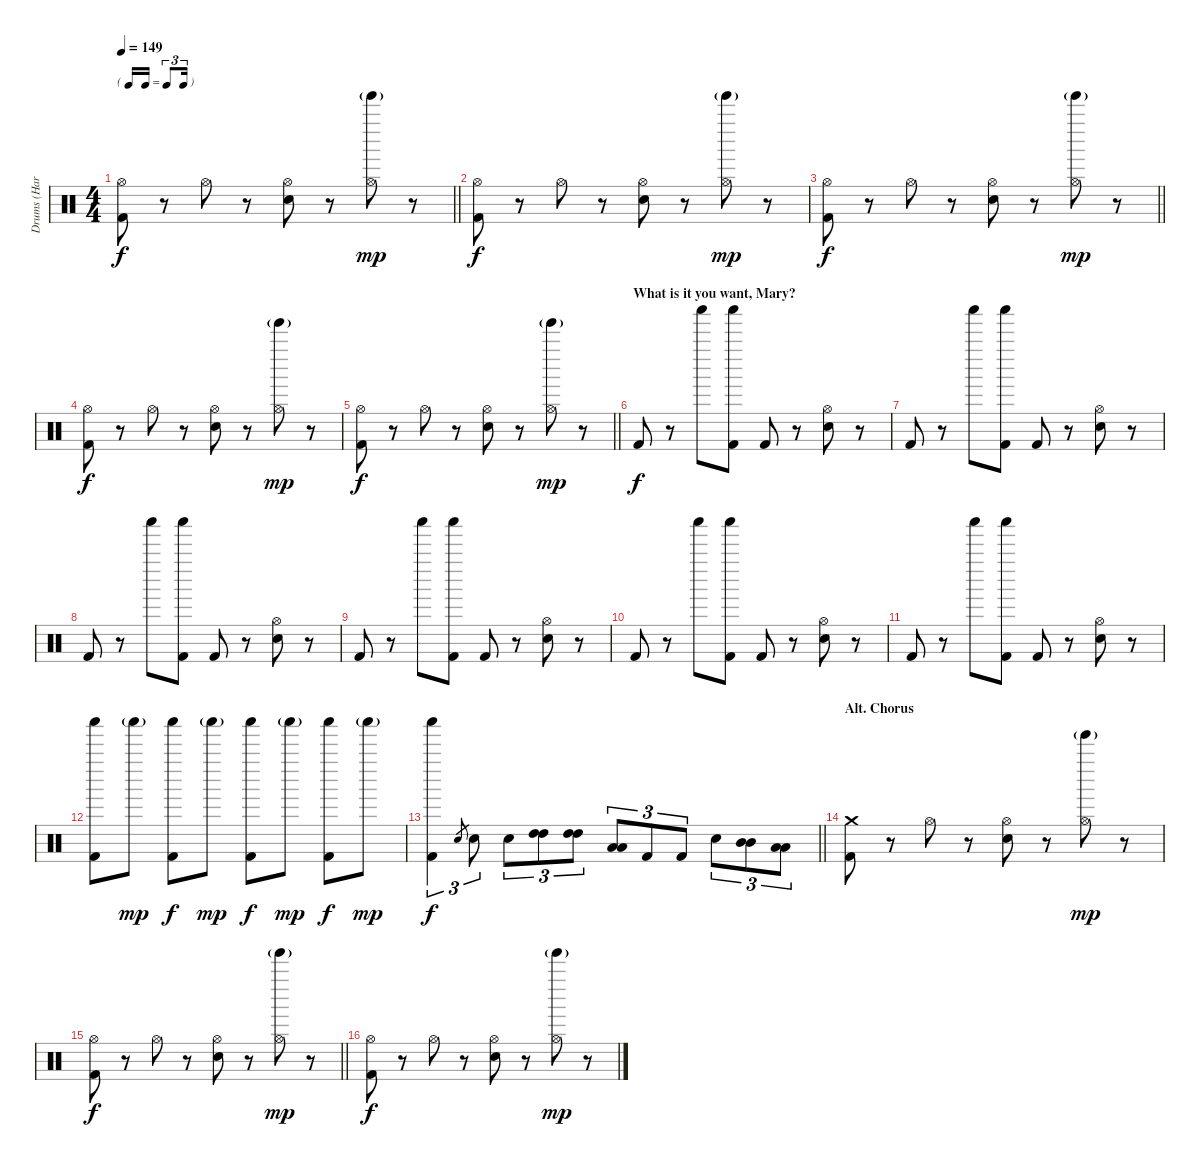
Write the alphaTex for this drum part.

\track ("Drums (Harry)" "Drums (Har") {instrument percussion}
\staff {score}
\articulation defaults
\ts (4 4)
\tf triplet16th
\tempo 149
\clef neutral
\barLineRight lightlight
\ks c
("Hi-Hat (open)" "Kick (hit) 2").8{dy f} r.8 "Hi-Hat (open)".8 r.8 ("Hi-Hat (open)" "Electric Snare (hit)").8 r.8 ("Tinkle Bell (hit)"{g} "Hi-Hat (open)").8{dy mp} r.8 |
("Hi-Hat (open)" "Kick (hit) 2").8{dy f} r.8 "Hi-Hat (open)".8 r.8 ("Hi-Hat (open)" "Electric Snare (hit)").8 r.8 ("Tinkle Bell (hit)"{g} "Hi-Hat (open)").8{dy mp} r.8 |
\barLineRight lightlight
("Hi-Hat (open)" "Kick (hit) 2").8{dy f} r.8 "Hi-Hat (open)".8 r.8 ("Hi-Hat (open)" "Electric Snare (hit)").8 r.8 ("Tinkle Bell (hit)"{g} "Hi-Hat (open)").8{dy mp} r.8 |
("Hi-Hat (open)" "Kick (hit) 2").8{dy f} r.8 "Hi-Hat (open)".8 r.8 ("Hi-Hat (open)" "Electric Snare (hit)").8 r.8 ("Tinkle Bell (hit)"{g} "Hi-Hat (open)").8{dy mp} r.8 |
\barLineRight lightlight
("Hi-Hat (open)" "Kick (hit) 2").8{dy f} r.8 "Hi-Hat (open)".8 r.8 ("Hi-Hat (open)" "Electric Snare (hit)").8 r.8 ("Tinkle Bell (hit)"{g} "Hi-Hat (open)").8{dy mp} r.8 |
\section ("" "What is it you want, Mary?")
"Kick (hit) 2".8{dy f} r.8 "Shaker (hit)".8 ("Shaker (hit)" "Kick (hit) 2").8 "Kick (hit) 2".8 r.8 ("Hi-Hat (open)" "Electric Snare (hit)").8 r.8 |
"Kick (hit) 2".8 r.8 "Shaker (hit)".8 ("Shaker (hit)" "Kick (hit) 2").8 "Kick (hit) 2".8 r.8 ("Hi-Hat (open)" "Electric Snare (hit)").8 r.8 |
"Kick (hit) 2".8 r.8 "Shaker (hit)".8 ("Shaker (hit)" "Kick (hit) 2").8 "Kick (hit) 2".8 r.8 ("Hi-Hat (open)" "Electric Snare (hit)").8 r.8 |
"Kick (hit) 2".8 r.8 "Shaker (hit)".8 ("Shaker (hit)" "Kick (hit) 2").8 "Kick (hit) 2".8 r.8 ("Hi-Hat (open)" "Electric Snare (hit)").8 r.8 |
"Kick (hit) 2".8 r.8 "Shaker (hit)".8 ("Shaker (hit)" "Kick (hit) 2").8 "Kick (hit) 2".8 r.8 ("Hi-Hat (open)" "Electric Snare (hit)").8 r.8 |
"Kick (hit) 2".8 r.8 "Shaker (hit)".8 ("Shaker (hit)" "Kick (hit) 2").8 "Kick (hit) 2".8 r.8 ("Hi-Hat (open)" "Electric Snare (hit)").8 r.8 |
("Shaker (hit)" "Kick (hit) 2").8 "Shaker (hit)"{g}.8{dy mp} ("Shaker (hit)" "Kick (hit) 2").8{dy f} "Shaker (hit)"{g}.8{dy mp} ("Shaker (hit)" "Kick (hit) 2").8{dy f} "Shaker (hit)"{g}.8{dy mp} ("Shaker (hit)" "Kick (hit) 2").8{dy f} "Shaker (hit)"{g}.8{dy mp} |
\barLineRight lightlight
("Shaker (hit)" "Kick (hit) 2").4{tu (3 2) dy f} "Electric Snare (hit)".8{gr} "Electric Snare (hit)".8{tu (3 2)} "Electric Snare (hit)".8{tu (3 2)} ("High Tom (hit)" "High Tom (hit)").8{tu (3 2)} ("High Tom (hit)" "High Tom (hit)").8{tu (3 2)} ("Low Tom (hit)" "Low Tom (hit)").8{tu (3 2)} "Kick (hit) 2".8{tu (3 2)} "Kick (hit) 2".8{tu (3 2)} "Electric Snare (hit)".8{tu (3 2)} ("Mid Tom (hit)" "Mid Tom (hit)").8{tu (3 2)} ("Low Tom (hit)" "Low Tom (hit)").8{tu (3 2)} |
\section ("" "Alt. Chorus")
("Crash medium (hit)" "Kick (hit) 2").8 r.8 "Hi-Hat (open)".8 r.8 ("Hi-Hat (open)" "Electric Snare (hit)").8 r.8 ("Tinkle Bell (hit)"{g} "Hi-Hat (open)").8{dy mp} r.8 |
\barLineRight lightlight
("Hi-Hat (open)" "Kick (hit) 2").8{dy f} r.8 "Hi-Hat (open)".8 r.8 ("Hi-Hat (open)" "Electric Snare (hit)").8 r.8 ("Tinkle Bell (hit)"{g} "Hi-Hat (open)").8{dy mp} r.8 |
("Hi-Hat (open)" "Kick (hit) 2").8{dy f} r.8 "Hi-Hat (open)".8 r.8 ("Hi-Hat (open)" "Electric Snare (hit)").8 r.8 ("Tinkle Bell (hit)"{g} "Hi-Hat (open)").8{dy mp} r.8
